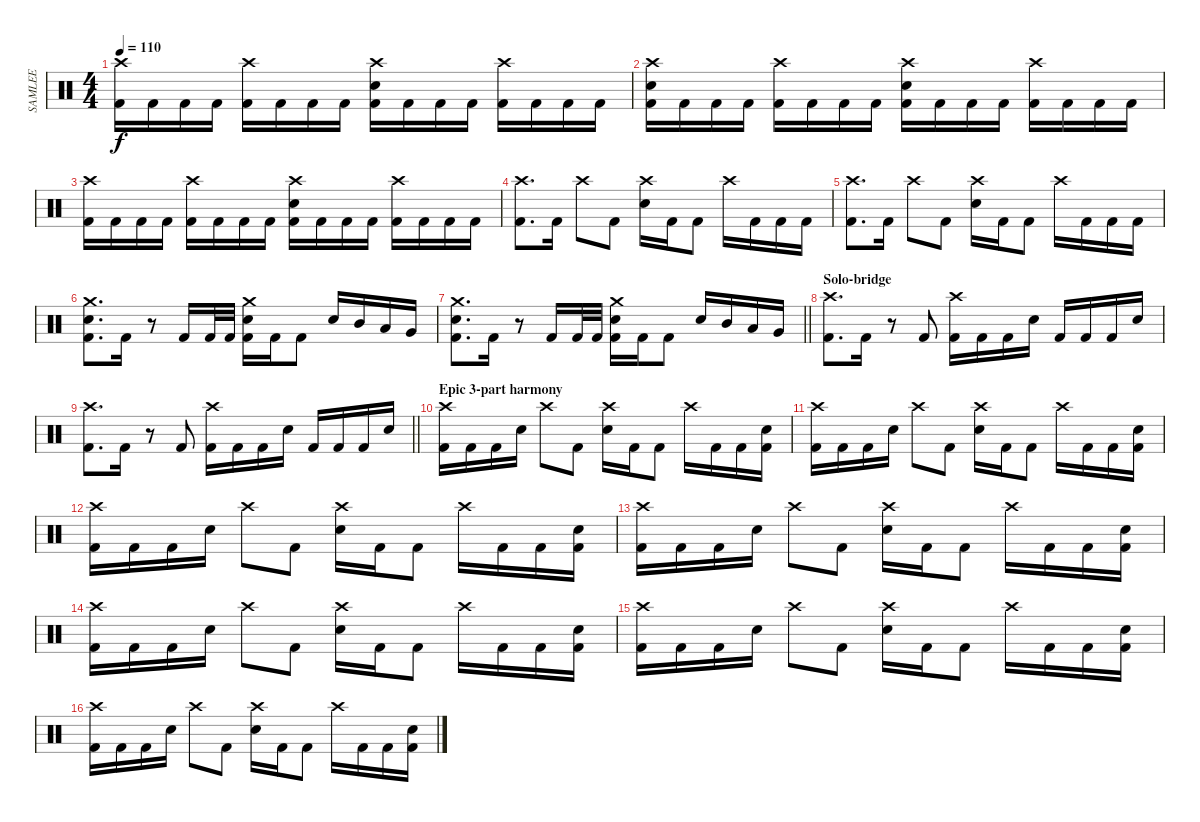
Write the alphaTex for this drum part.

\track ("SAMLEE" "SAMLEE") {instrument percussion}
\staff {score}
\articulation defaults
\ts (4 4)
\tempo 110
\clef neutral
\ks c
("Crash high (hit)" "Kick (hit) 2").16{dy f} "Kick (hit) 2".16 "Kick (hit) 2".16 "Kick (hit) 2".16 ("Crash high (hit)" "Kick (hit) 2").16 "Kick (hit) 2".16 "Kick (hit) 2".16 "Kick (hit) 2".16 ("Crash high (hit)" "Snare (hit) 2" "Kick (hit) 2").16 "Kick (hit) 2".16 "Kick (hit) 2".16 "Kick (hit) 2".16 ("Crash high (hit)" "Kick (hit) 2").16 "Kick (hit) 2".16 "Kick (hit) 2".16 "Kick (hit) 2".16 |
("Crash high (hit)" "Snare (hit) 2" "Kick (hit) 2").16 "Kick (hit) 2".16 "Kick (hit) 2".16 "Kick (hit) 2".16 ("Crash high (hit)" "Kick (hit) 2").16 "Kick (hit) 2".16 "Kick (hit) 2".16 "Kick (hit) 2".16 ("Crash high (hit)" "Snare (hit) 2" "Kick (hit) 2").16 "Kick (hit) 2".16 "Kick (hit) 2".16 "Kick (hit) 2".16 ("Crash high (hit)" "Kick (hit) 2").16 "Kick (hit) 2".16 "Kick (hit) 2".16 "Kick (hit) 2".16 |
("Crash high (hit)" "Kick (hit) 2").16 "Kick (hit) 2".16 "Kick (hit) 2".16 "Kick (hit) 2".16 ("Crash high (hit)" "Kick (hit) 2").16 "Kick (hit) 2".16 "Kick (hit) 2".16 "Kick (hit) 2".16 ("Crash high (hit)" "Snare (hit) 2" "Kick (hit) 2").16 "Kick (hit) 2".16 "Kick (hit) 2".16 "Kick (hit) 2".16 ("Crash high (hit)" "Kick (hit) 2").16 "Kick (hit) 2".16 "Kick (hit) 2".16 "Kick (hit) 2".16 |
("Crash high (hit)" "Kick (hit) 2").8{d} "Kick (hit) 2".16 "Crash high (hit)".8 "Kick (hit) 2".8 ("Crash high (hit)" "Snare (hit) 2").16 "Kick (hit) 2".16 "Kick (hit) 2".8 "Crash high (hit)".16 "Kick (hit) 2".16 "Kick (hit) 2".16 "Kick (hit) 2".16 |
("Crash high (hit)" "Kick (hit) 2").8{d} "Kick (hit) 2".16 "Crash high (hit)".8 "Kick (hit) 2".8 ("Crash high (hit)" "Snare (hit) 2").16 "Kick (hit) 2".16 "Kick (hit) 2".8 "Crash high (hit)".16 "Kick (hit) 2".16 "Kick (hit) 2".16 "Kick (hit) 2".16 |
("Crash medium (hit)" "Snare (hit) 2" "Kick (hit) 2").8{d} "Kick (hit) 2".16 r.8 "Kick (hit) 2".16 "Kick (hit) 2".32 "Kick (hit) 2".32 ("Crash medium (hit)" "Snare (hit) 2" "Kick (hit) 2").16 "Kick (hit) 2".16 "Kick (hit) 2".8 "Snare (hit) 2".16 "Mid Tom (hit)".16 "Low Tom (hit)".16 "Very Low Tom (hit)".16 |
\barLineRight lightlight
("Crash medium (hit)" "Snare (hit) 2" "Kick (hit) 2").8{d} "Kick (hit) 2".16 r.8 "Kick (hit) 2".16 "Kick (hit) 2".32 "Kick (hit) 2".32 ("Crash medium (hit)" "Snare (hit) 2" "Kick (hit) 2").16 "Kick (hit) 2".16 "Kick (hit) 2".8 "Snare (hit) 2".16 "Mid Tom (hit)".16 "Low Tom (hit)".16 "Very Low Tom (hit)".16 |
\section ("" "Solo-bridge")
("Crash high (hit)" "Kick (hit) 2").8{d} "Kick (hit) 2".16 r.8 "Kick (hit) 2".8 ("Crash high (hit)" "Kick (hit) 2").16 "Kick (hit) 2".16 "Kick (hit) 2".16 "Snare (hit) 2".16 "Kick (hit) 2".16 "Kick (hit) 2".16 "Kick (hit) 2".16 "Snare (hit) 2".16 |
\barLineRight lightlight
("Crash high (hit)" "Kick (hit) 2").8{d} "Kick (hit) 2".16 r.8 "Kick (hit) 2".8 ("Crash high (hit)" "Kick (hit) 2").16 "Kick (hit) 2".16 "Kick (hit) 2".16 "Snare (hit) 2".16 "Kick (hit) 2".16 "Kick (hit) 2".16 "Kick (hit) 2".16 "Snare (hit) 2".16 |
\section ("" "Epic 3-part harmony")
("Crash high (hit)" "Kick (hit) 2").16 "Kick (hit) 2".16 "Kick (hit) 2".16 "Snare (hit) 2".16 "Crash high (hit)".8 "Kick (hit) 2".8 ("Crash high (hit)" "Snare (hit) 2").16 "Kick (hit) 2".16 "Kick (hit) 2".8 "Crash high (hit)".16 "Kick (hit) 2".16 "Kick (hit) 2".16 ("Snare (hit) 2" "Kick (hit) 2").16 |
("Crash high (hit)" "Kick (hit) 2").16 "Kick (hit) 2".16 "Kick (hit) 2".16 "Snare (hit) 2".16 "Crash high (hit)".8 "Kick (hit) 2".8 ("Crash high (hit)" "Snare (hit) 2").16 "Kick (hit) 2".16 "Kick (hit) 2".8 "Crash high (hit)".16 "Kick (hit) 2".16 "Kick (hit) 2".16 ("Snare (hit) 2" "Kick (hit) 2").16 |
("Crash high (hit)" "Kick (hit) 2").16 "Kick (hit) 2".16 "Kick (hit) 2".16 "Snare (hit) 2".16 "Crash high (hit)".8 "Kick (hit) 2".8 ("Crash high (hit)" "Snare (hit) 2").16 "Kick (hit) 2".16 "Kick (hit) 2".8 "Crash high (hit)".16 "Kick (hit) 2".16 "Kick (hit) 2".16 ("Snare (hit) 2" "Kick (hit) 2").16 |
("Crash high (hit)" "Kick (hit) 2").16 "Kick (hit) 2".16 "Kick (hit) 2".16 "Snare (hit) 2".16 "Crash high (hit)".8 "Kick (hit) 2".8 ("Crash high (hit)" "Snare (hit) 2").16 "Kick (hit) 2".16 "Kick (hit) 2".8 "Crash high (hit)".16 "Kick (hit) 2".16 "Kick (hit) 2".16 ("Snare (hit) 2" "Kick (hit) 2").16 |
("Crash high (hit)" "Kick (hit) 2").16 "Kick (hit) 2".16 "Kick (hit) 2".16 "Snare (hit) 2".16 "Crash high (hit)".8 "Kick (hit) 2".8 ("Crash high (hit)" "Snare (hit) 2").16 "Kick (hit) 2".16 "Kick (hit) 2".8 "Crash high (hit)".16 "Kick (hit) 2".16 "Kick (hit) 2".16 ("Snare (hit) 2" "Kick (hit) 2").16 |
("Crash high (hit)" "Kick (hit) 2").16 "Kick (hit) 2".16 "Kick (hit) 2".16 "Snare (hit) 2".16 "Crash high (hit)".8 "Kick (hit) 2".8 ("Crash high (hit)" "Snare (hit) 2").16 "Kick (hit) 2".16 "Kick (hit) 2".8 "Crash high (hit)".16 "Kick (hit) 2".16 "Kick (hit) 2".16 ("Snare (hit) 2" "Kick (hit) 2").16 |
("Crash high (hit)" "Kick (hit) 2").16 "Kick (hit) 2".16 "Kick (hit) 2".16 "Snare (hit) 2".16 "Crash high (hit)".8 "Kick (hit) 2".8 ("Crash high (hit)" "Snare (hit) 2").16 "Kick (hit) 2".16 "Kick (hit) 2".8 "Crash high (hit)".16 "Kick (hit) 2".16 "Kick (hit) 2".16 ("Snare (hit) 2" "Kick (hit) 2").16
